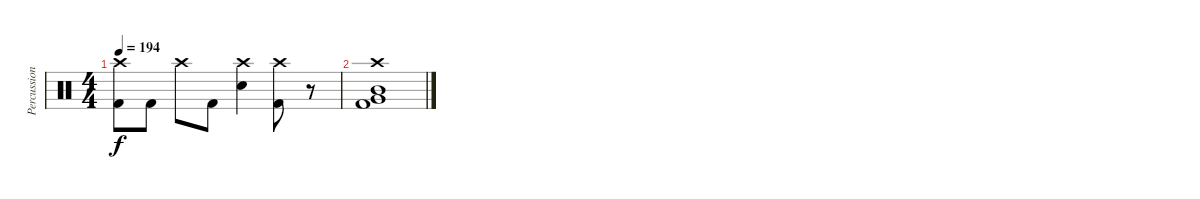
\track ("Percussions" "Percussion") {instrument percussion}
\staff {score}
\articulation defaults
\ts (4 4)
\tempo 194
\clef neutral
\ks c
("Crash high (hit)" "Kick (hit) 2").8{dy f} "Kick (hit) 2".8 "Crash high (hit)".8 "Kick (hit) 2".8 ("Crash high (hit)" "Electric Snare (hit)").4 ("Crash high (hit)" "Kick (hit) 2").8 r.8 |
("Crash high (hit)" "Very Low Tom (hit)" "Mid Tom (hit)" "Kick (hit) 2").1
